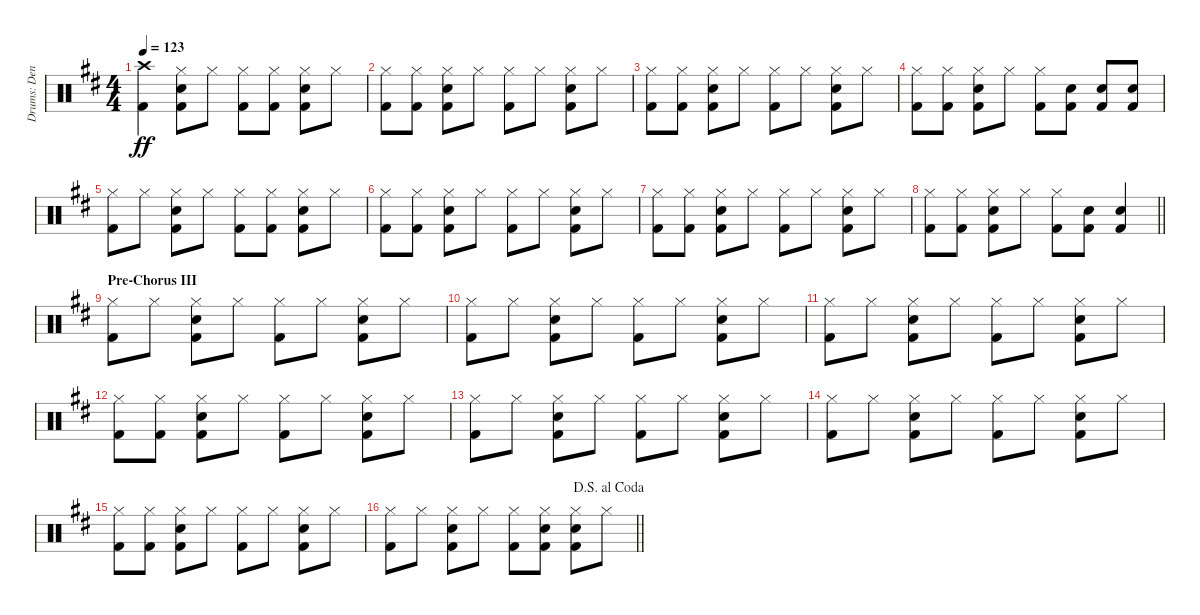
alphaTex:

\track ("Drums: Denny" "Drums: Den") {instrument percussion}
\staff {score}
\articulation defaults
\ts (4 4)
\tempo 123
\clef neutral
\ks d
("Crash high (hit)" "Kick (hit) 2").4{dy ff} ("Hi-Hat (closed)" "Snare (hit) 2" "Kick (hit) 2").8 "Hi-Hat (closed)".8 ("Hi-Hat (closed)" "Kick (hit) 2").8 ("Hi-Hat (closed)" "Kick (hit) 2").8 ("Hi-Hat (closed)" "Snare (hit) 2" "Kick (hit) 2").8 "Hi-Hat (closed)".8 |
("Hi-Hat (closed)" "Kick (hit) 2").8 ("Hi-Hat (closed)" "Kick (hit) 2").8 ("Hi-Hat (closed)" "Snare (hit) 2" "Kick (hit) 2").8 "Hi-Hat (closed)".8 ("Hi-Hat (closed)" "Kick (hit) 2").8 "Hi-Hat (closed)".8 ("Hi-Hat (closed)" "Snare (hit) 2" "Kick (hit) 2").8 "Hi-Hat (closed)".8 |
("Hi-Hat (closed)" "Kick (hit) 2").8 ("Hi-Hat (closed)" "Kick (hit) 2").8 ("Hi-Hat (closed)" "Snare (hit) 2" "Kick (hit) 2").8 "Hi-Hat (closed)".8 ("Hi-Hat (closed)" "Kick (hit) 2").8 "Hi-Hat (closed)".8 ("Hi-Hat (closed)" "Snare (hit) 2" "Kick (hit) 2").8 "Hi-Hat (closed)".8 |
("Hi-Hat (closed)" "Kick (hit) 2").8 ("Hi-Hat (closed)" "Kick (hit) 2").8 ("Hi-Hat (closed)" "Snare (hit) 2" "Kick (hit) 2").8 "Hi-Hat (closed)".8 ("Hi-Hat (closed)" "Kick (hit) 2").8 ("Snare (hit) 2" "Kick (hit) 2").8 ("Snare (hit) 2" "Kick (hit) 2").8 ("Snare (hit) 2" "Kick (hit) 2").8 |
("Hi-Hat (closed)" "Kick (hit) 2").8 "Hi-Hat (closed)".8 ("Hi-Hat (closed)" "Snare (hit) 2" "Kick (hit) 2").8 "Hi-Hat (closed)".8 ("Hi-Hat (closed)" "Kick (hit) 2").8 ("Hi-Hat (closed)" "Kick (hit) 2").8 ("Hi-Hat (closed)" "Snare (hit) 2" "Kick (hit) 2").8 "Hi-Hat (closed)".8 |
("Hi-Hat (closed)" "Kick (hit) 2").8 ("Hi-Hat (closed)" "Kick (hit) 2").8 ("Hi-Hat (closed)" "Snare (hit) 2" "Kick (hit) 2").8 "Hi-Hat (closed)".8 ("Hi-Hat (closed)" "Kick (hit) 2").8 "Hi-Hat (closed)".8 ("Hi-Hat (closed)" "Snare (hit) 2" "Kick (hit) 2").8 "Hi-Hat (closed)".8 |
("Hi-Hat (closed)" "Kick (hit) 2").8 ("Hi-Hat (closed)" "Kick (hit) 2").8 ("Hi-Hat (closed)" "Snare (hit) 2" "Kick (hit) 2").8 "Hi-Hat (closed)".8 ("Hi-Hat (closed)" "Kick (hit) 2").8 "Hi-Hat (closed)".8 ("Hi-Hat (closed)" "Snare (hit) 2" "Kick (hit) 2").8 "Hi-Hat (closed)".8 |
\barLineRight lightlight
("Hi-Hat (closed)" "Kick (hit) 2").8 ("Hi-Hat (closed)" "Kick (hit) 2").8 ("Hi-Hat (closed)" "Snare (hit) 2" "Kick (hit) 2").8 "Hi-Hat (closed)".8 ("Hi-Hat (closed)" "Kick (hit) 2").8 ("Snare (hit) 2" "Kick (hit) 2").8 ("Snare (hit) 2" "Kick (hit) 2").4 |
\section ("" "Pre-Chorus III")
("Hi-Hat (closed)" "Kick (hit) 2").8 "Hi-Hat (closed)".8 ("Hi-Hat (closed)" "Snare (hit) 2" "Kick (hit) 2").8 "Hi-Hat (closed)".8 ("Hi-Hat (closed)" "Kick (hit) 2").8 "Hi-Hat (closed)".8 ("Hi-Hat (closed)" "Snare (hit) 2" "Kick (hit) 2").8 "Hi-Hat (closed)".8 |
("Hi-Hat (closed)" "Kick (hit) 2").8 "Hi-Hat (closed)".8 ("Hi-Hat (closed)" "Snare (hit) 2" "Kick (hit) 2").8 "Hi-Hat (closed)".8 ("Hi-Hat (closed)" "Kick (hit) 2").8 "Hi-Hat (closed)".8 ("Hi-Hat (closed)" "Snare (hit) 2" "Kick (hit) 2").8 "Hi-Hat (closed)".8 |
("Hi-Hat (closed)" "Kick (hit) 2").8 "Hi-Hat (closed)".8 ("Hi-Hat (closed)" "Snare (hit) 2" "Kick (hit) 2").8 "Hi-Hat (closed)".8 ("Hi-Hat (closed)" "Kick (hit) 2").8 "Hi-Hat (closed)".8 ("Hi-Hat (closed)" "Snare (hit) 2" "Kick (hit) 2").8 "Hi-Hat (closed)".8 |
("Hi-Hat (closed)" "Kick (hit) 2").8 ("Hi-Hat (closed)" "Kick (hit) 2").8 ("Hi-Hat (closed)" "Snare (hit) 2" "Kick (hit) 2").8 "Hi-Hat (closed)".8 ("Hi-Hat (closed)" "Kick (hit) 2").8 "Hi-Hat (closed)".8 ("Hi-Hat (closed)" "Snare (hit) 2" "Kick (hit) 2").8 "Hi-Hat (closed)".8 |
("Hi-Hat (closed)" "Kick (hit) 2").8 "Hi-Hat (closed)".8 ("Hi-Hat (closed)" "Snare (hit) 2" "Kick (hit) 2").8 "Hi-Hat (closed)".8 ("Hi-Hat (closed)" "Kick (hit) 2").8 "Hi-Hat (closed)".8 ("Hi-Hat (closed)" "Snare (hit) 2" "Kick (hit) 2").8 "Hi-Hat (closed)".8 |
("Hi-Hat (closed)" "Kick (hit) 2").8 "Hi-Hat (closed)".8 ("Hi-Hat (closed)" "Snare (hit) 2" "Kick (hit) 2").8 "Hi-Hat (closed)".8 ("Hi-Hat (closed)" "Kick (hit) 2").8 "Hi-Hat (closed)".8 ("Hi-Hat (closed)" "Snare (hit) 2" "Kick (hit) 2").8 "Hi-Hat (closed)".8 |
("Hi-Hat (closed)" "Kick (hit) 2").8 ("Hi-Hat (closed)" "Kick (hit) 2").8 ("Hi-Hat (closed)" "Snare (hit) 2" "Kick (hit) 2").8 "Hi-Hat (closed)".8 ("Hi-Hat (closed)" "Kick (hit) 2").8 "Hi-Hat (closed)".8 ("Hi-Hat (closed)" "Snare (hit) 2" "Kick (hit) 2").8 "Hi-Hat (closed)".8 |
\jump dalsegnoalcoda
\barLineRight lightlight
("Hi-Hat (closed)" "Kick (hit) 2").8 "Hi-Hat (closed)".8 ("Hi-Hat (closed)" "Snare (hit) 2" "Kick (hit) 2").8 "Hi-Hat (closed)".8 ("Hi-Hat (closed)" "Kick (hit) 2").8 ("Hi-Hat (closed)" "Snare (hit) 2" "Kick (hit) 2").8 ("Hi-Hat (closed)" "Snare (hit) 2" "Kick (hit) 2").8 "Hi-Hat (closed)".8
